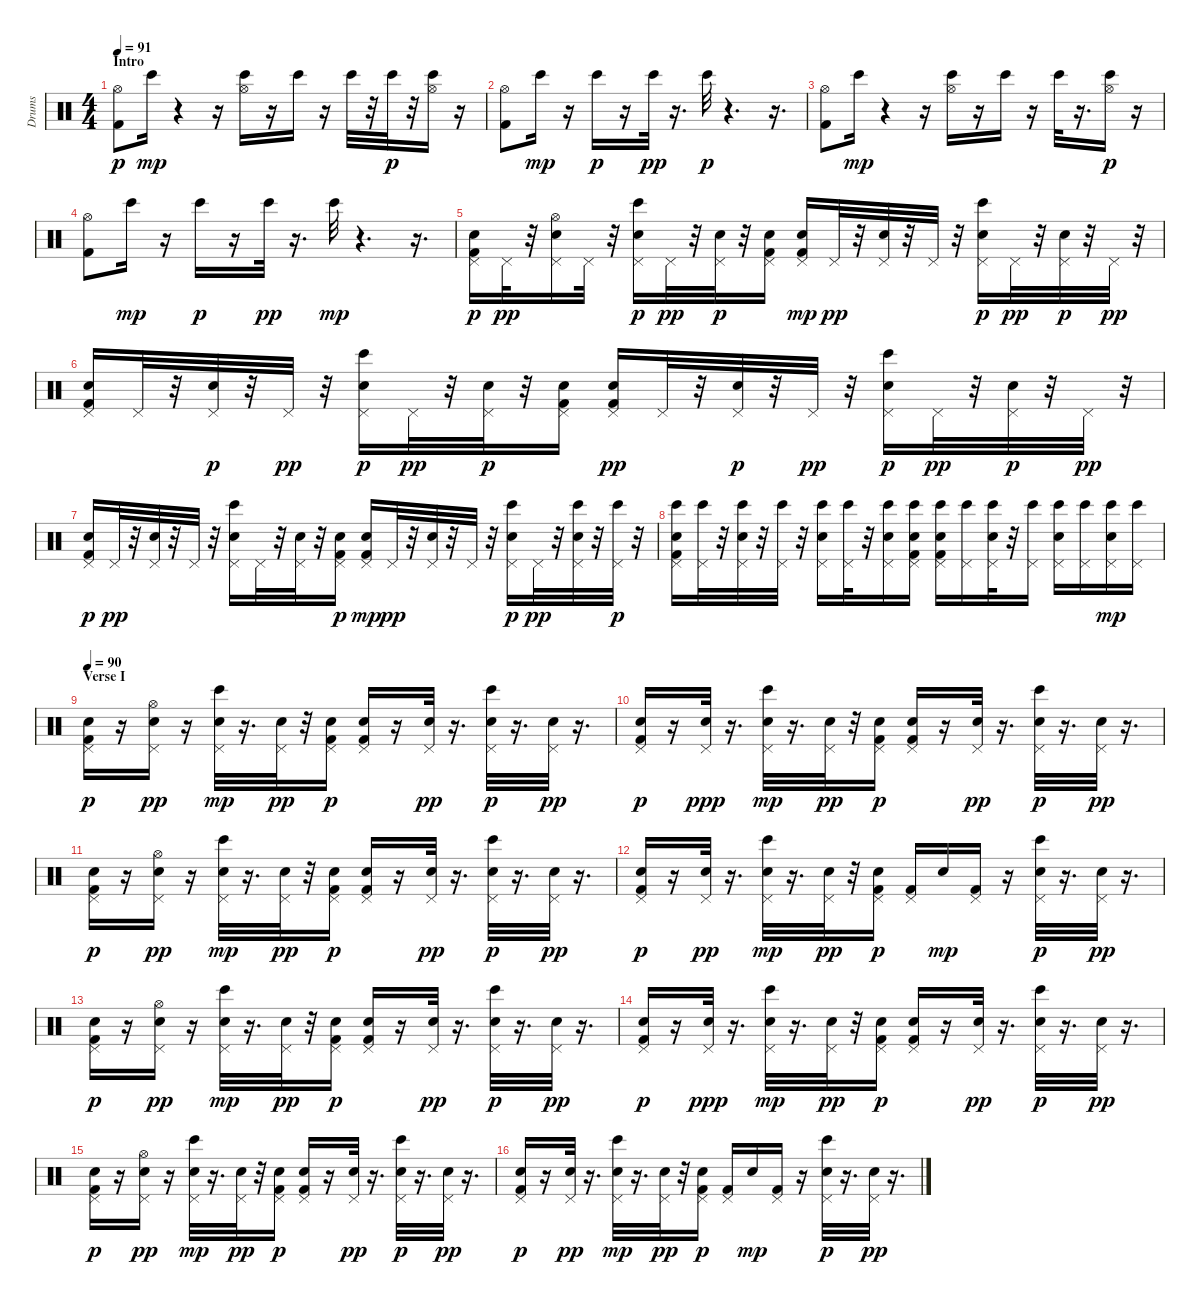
\track ("Drums" "Drums") {instrument percussion}
\staff {score}
\articulation defaults
\ts (4 4)
\section ("" "Intro")
\tempo 91
\clef neutral
\ks c
("Hi-Hat (open)" "Kick (hit) 2").8{dy p} "Bongo High (hit)".16{dy mp} r.4 r.16 ("Hi-Hat (open)" "Bongo High (hit)").16 r.16 "Bongo High (hit)".16 r.16 "Bongo High (hit)".32 r.32 "Bongo High (hit)".32{dy p} r.32 ("Hi-Hat (open)" "Bongo High (hit)").16 r.16 |
("Hi-Hat (open)" "Kick (hit) 2").8 "Bongo High (hit)".16{dy mp} r.16 "Bongo High (hit)".16{dy p} r.16 "Bongo High (hit)".32{dy pp} r.16{d} "Bongo High (hit)".32{dy p} r.4{d} r.16{d} |
("Hi-Hat (open)" "Kick (hit) 2").8 "Bongo High (hit)".16{dy mp} r.4 r.16 ("Hi-Hat (open)" "Bongo High (hit)").16 r.16 "Bongo High (hit)".16 r.16 "Bongo High (hit)".32 r.16{d} ("Hi-Hat (open)" "Bongo High (hit)").16{dy p} r.16 |
("Hi-Hat (open)" "Kick (hit) 2").8 "Bongo High (hit)".16{dy mp} r.16 "Bongo High (hit)".16{dy p} r.16 "Bongo High (hit)".32{dy pp} r.16{d} "Bongo High (hit)".32{dy mp} r.4{d} r.16{d} |
("Pedal Hi-Hat (hit)" "Snare (hit) 2" "Kick (hit) 2").16{dy p volume 12 balance 8} "Pedal Hi-Hat (hit)".32{dy pp} r.32 ("Pedal Hi-Hat (hit)" "Snare (hit) 2" "Hi-Hat (open)").16 "Pedal Hi-Hat (hit)".32 r.32 ("Bongo High (hit)" "Pedal Hi-Hat (hit)" "Snare (hit) 2").16{dy p} "Pedal Hi-Hat (hit)".32{dy pp} r.32 ("Snare (hit) 2" "Pedal Hi-Hat (hit)").32{dy p} r.32 ("Pedal Hi-Hat (hit)" "Snare (hit) 2" "Kick (hit) 2").16 ("Kick (hit) 2" "Pedal Hi-Hat (hit)" "Snare (hit) 2").16{dy mp} "Pedal Hi-Hat (hit)".32{dy pp} r.32 ("Pedal Hi-Hat (hit)" "Snare (hit) 2").32 r.32 "Pedal Hi-Hat (hit)".32 r.32 ("Pedal Hi-Hat (hit)" "Snare (hit) 2" "Bongo High (hit)").16{dy p} "Pedal Hi-Hat (hit)".32{dy pp} r.32 ("Snare (hit) 2" "Pedal Hi-Hat (hit)").32{dy p} r.32 "Pedal Hi-Hat (hit)".32{dy pp} r.32 |
("Snare (hit) 2" "Kick (hit) 2" "Pedal Hi-Hat (hit)").16 "Pedal Hi-Hat (hit)".32 r.32 ("Snare (hit) 2" "Pedal Hi-Hat (hit)").32{dy p} r.32 "Pedal Hi-Hat (hit)".32{dy pp} r.32 ("Snare (hit) 2" "Bongo High (hit)" "Pedal Hi-Hat (hit)").16{dy p} "Pedal Hi-Hat (hit)".32{dy pp} r.32 ("Snare (hit) 2" "Pedal Hi-Hat (hit)").32{dy p} r.32 ("Snare (hit) 2" "Kick (hit) 2" "Pedal Hi-Hat (hit)").16 ("Kick (hit) 2" "Snare (hit) 2" "Pedal Hi-Hat (hit)").16{dy pp} "Pedal Hi-Hat (hit)".32 r.32 ("Snare (hit) 2" "Pedal Hi-Hat (hit)").32{dy p} r.32 "Pedal Hi-Hat (hit)".32{dy pp} r.32 ("Snare (hit) 2" "Pedal Hi-Hat (hit)" "Bongo High (hit)").16{dy p} "Pedal Hi-Hat (hit)".32{dy pp} r.32 ("Snare (hit) 2" "Pedal Hi-Hat (hit)").32{dy p} r.32 "Pedal Hi-Hat (hit)".32{dy pp} r.32 |
("Pedal Hi-Hat (hit)" "Snare (hit) 2" "Kick (hit) 2").16{dy p} "Pedal Hi-Hat (hit)".32{dy pp} r.32 ("Pedal Hi-Hat (hit)" "Snare (hit) 2").32 r.32 "Pedal Hi-Hat (hit)".32 r.32 ("Bongo High (hit)" "Pedal Hi-Hat (hit)" "Snare (hit) 2").16 "Pedal Hi-Hat (hit)".32 r.32 ("Pedal Hi-Hat (hit)" "Snare (hit) 2").32 r.32 ("Pedal Hi-Hat (hit)" "Snare (hit) 2" "Kick (hit) 2").16{dy p} ("Pedal Hi-Hat (hit)" "Kick (hit) 2" "Snare (hit) 2").16{dy mp} "Pedal Hi-Hat (hit)".32{dy pp} r.32 ("Pedal Hi-Hat (hit)" "Snare (hit) 2").32 r.32 "Pedal Hi-Hat (hit)".32 r.32 ("Pedal Hi-Hat (hit)" "Bongo High (hit)" "Snare (hit) 2").16{dy p} "Pedal Hi-Hat (hit)".32{dy pp} r.32 ("Bongo High (hit)" "Pedal Hi-Hat (hit)" "Snare (hit) 2").32 r.32 ("Bongo High (hit)" "Pedal Hi-Hat (hit)").32{dy p} r.32 |
("Snare (hit) 2" "Kick (hit) 2" "Pedal Hi-Hat (hit)" "Bongo High (hit)").16 ("Pedal Hi-Hat (hit)" "Bongo High (hit)").32 r.32 ("Snare (hit) 2" "Pedal Hi-Hat (hit)" "Bongo High (hit)").32 r.32 ("Pedal Hi-Hat (hit)" "Bongo High (hit)").32 r.32 ("Snare (hit) 2" "Pedal Hi-Hat (hit)" "Bongo High (hit)").16 ("Pedal Hi-Hat (hit)" "Bongo High (hit)").32 r.32 ("Snare (hit) 2" "Pedal Hi-Hat (hit)" "Bongo High (hit)").16 ("Snare (hit) 2" "Kick (hit) 2" "Pedal Hi-Hat (hit)" "Bongo High (hit)").16 ("Kick (hit) 2" "Snare (hit) 2" "Pedal Hi-Hat (hit)" "Bongo High (hit)").16 ("Pedal Hi-Hat (hit)" "Bongo High (hit)").16 ("Snare (hit) 2" "Pedal Hi-Hat (hit)" "Bongo High (hit)").32 r.32 ("Pedal Hi-Hat (hit)" "Bongo High (hit)").16 ("Snare (hit) 2" "Pedal Hi-Hat (hit)" "Bongo High (hit)").16 ("Pedal Hi-Hat (hit)" "Bongo High (hit)").16 ("Snare (hit) 2" "Pedal Hi-Hat (hit)" "Bongo High (hit)").16{dy mp} ("Pedal Hi-Hat (hit)" "Bongo High (hit)").16 |
\section ("" "Verse I")
\tempo 90
("Pedal Hi-Hat (hit)" "Snare (hit) 2" "Kick (hit) 2").16{dy p} r.16 ("Pedal Hi-Hat (hit)" "Hi-Hat (open)" "Snare (hit) 2").16{dy pp} r.16 ("Pedal Hi-Hat (hit)" "Bongo High (hit)" "Snare (hit) 2").32{dy mp} r.16{d} ("Pedal Hi-Hat (hit)" "Snare (hit) 2").32{dy pp} r.32 ("Pedal Hi-Hat (hit)" "Snare (hit) 2" "Kick (hit) 2").16{dy p} ("Pedal Hi-Hat (hit)" "Kick (hit) 2" "Snare (hit) 2").16 r.16 ("Pedal Hi-Hat (hit)" "Snare (hit) 2").32{dy pp} r.16{d} ("Pedal Hi-Hat (hit)" "Snare (hit) 2" "Bongo High (hit)").32{dy p} r.16{d} ("Pedal Hi-Hat (hit)" "Snare (hit) 2").32{dy pp} r.16{d} |
("Pedal Hi-Hat (hit)" "Snare (hit) 2" "Kick (hit) 2").16{dy p} r.16 ("Pedal Hi-Hat (hit)" "Snare (hit) 2").32{dy ppp} r.16{d} ("Pedal Hi-Hat (hit)" "Bongo High (hit)" "Snare (hit) 2").32{dy mp} r.16{d} ("Pedal Hi-Hat (hit)" "Snare (hit) 2").32{dy pp} r.32 ("Pedal Hi-Hat (hit)" "Snare (hit) 2" "Kick (hit) 2").16{dy p} ("Pedal Hi-Hat (hit)" "Kick (hit) 2" "Snare (hit) 2").16 r.16 ("Pedal Hi-Hat (hit)" "Snare (hit) 2").32{dy pp} r.16{d} ("Pedal Hi-Hat (hit)" "Snare (hit) 2" "Bongo High (hit)").32{dy p} r.16{d} ("Pedal Hi-Hat (hit)" "Snare (hit) 2").32{dy pp} r.16{d} |
("Pedal Hi-Hat (hit)" "Snare (hit) 2" "Kick (hit) 2").16{dy p} r.16 ("Hi-Hat (open)" "Pedal Hi-Hat (hit)" "Snare (hit) 2").16{dy pp} r.16 ("Pedal Hi-Hat (hit)" "Bongo High (hit)" "Snare (hit) 2").32{dy mp} r.16{d} ("Pedal Hi-Hat (hit)" "Snare (hit) 2").32{dy pp} r.32 ("Pedal Hi-Hat (hit)" "Snare (hit) 2" "Kick (hit) 2").16{dy p} ("Pedal Hi-Hat (hit)" "Kick (hit) 2" "Snare (hit) 2").16 r.16 ("Pedal Hi-Hat (hit)" "Snare (hit) 2").32{dy pp} r.16{d} ("Pedal Hi-Hat (hit)" "Snare (hit) 2" "Bongo High (hit)").32{dy p} r.16{d} ("Pedal Hi-Hat (hit)" "Snare (hit) 2").32{dy pp} r.16{d} |
("Pedal Hi-Hat (hit)" "Snare (hit) 2" "Kick (hit) 2").16{dy p} r.16 ("Pedal Hi-Hat (hit)" "Snare (hit) 2").32{dy pp} r.16{d} ("Pedal Hi-Hat (hit)" "Bongo High (hit)" "Snare (hit) 2").32{dy mp} r.16{d} ("Pedal Hi-Hat (hit)" "Snare (hit) 2").32{dy pp} r.32 ("Pedal Hi-Hat (hit)" "Snare (hit) 2" "Kick (hit) 2").16{dy p} ("Pedal Hi-Hat (hit)" "Kick (hit) 2").16 "Snare (hit) 2".16{dy mp} ("Kick (hit) 2" "Pedal Hi-Hat (hit)").16 r.16 ("Pedal Hi-Hat (hit)" "Snare (hit) 2" "Bongo High (hit)").32{dy p} r.16{d} ("Pedal Hi-Hat (hit)" "Snare (hit) 2").32{dy pp} r.16{d} |
("Pedal Hi-Hat (hit)" "Snare (hit) 2" "Kick (hit) 2").16{dy p} r.16 ("Pedal Hi-Hat (hit)" "Hi-Hat (open)" "Snare (hit) 2").16{dy pp} r.16 ("Pedal Hi-Hat (hit)" "Bongo High (hit)" "Snare (hit) 2").32{dy mp} r.16{d} ("Pedal Hi-Hat (hit)" "Snare (hit) 2").32{dy pp} r.32 ("Pedal Hi-Hat (hit)" "Snare (hit) 2" "Kick (hit) 2").16{dy p} ("Pedal Hi-Hat (hit)" "Kick (hit) 2" "Snare (hit) 2").16 r.16 ("Pedal Hi-Hat (hit)" "Snare (hit) 2").32{dy pp} r.16{d} ("Pedal Hi-Hat (hit)" "Snare (hit) 2" "Bongo High (hit)").32{dy p} r.16{d} ("Pedal Hi-Hat (hit)" "Snare (hit) 2").32{dy pp} r.16{d} |
("Pedal Hi-Hat (hit)" "Snare (hit) 2" "Kick (hit) 2").16{dy p} r.16 ("Pedal Hi-Hat (hit)" "Snare (hit) 2").32{dy ppp} r.16{d} ("Pedal Hi-Hat (hit)" "Bongo High (hit)" "Snare (hit) 2").32{dy mp} r.16{d} ("Pedal Hi-Hat (hit)" "Snare (hit) 2").32{dy pp} r.32 ("Pedal Hi-Hat (hit)" "Snare (hit) 2" "Kick (hit) 2").16{dy p} ("Pedal Hi-Hat (hit)" "Kick (hit) 2" "Snare (hit) 2").16 r.16 ("Pedal Hi-Hat (hit)" "Snare (hit) 2").32{dy pp} r.16{d} ("Pedal Hi-Hat (hit)" "Snare (hit) 2" "Bongo High (hit)").32{dy p} r.16{d} ("Pedal Hi-Hat (hit)" "Snare (hit) 2").32{dy pp} r.16{d} |
("Pedal Hi-Hat (hit)" "Snare (hit) 2" "Kick (hit) 2").16{dy p} r.16 ("Hi-Hat (open)" "Pedal Hi-Hat (hit)" "Snare (hit) 2").16{dy pp} r.16 ("Pedal Hi-Hat (hit)" "Bongo High (hit)" "Snare (hit) 2").32{dy mp} r.16{d} ("Pedal Hi-Hat (hit)" "Snare (hit) 2").32{dy pp} r.32 ("Pedal Hi-Hat (hit)" "Snare (hit) 2" "Kick (hit) 2").16{dy p} ("Pedal Hi-Hat (hit)" "Kick (hit) 2" "Snare (hit) 2").16 r.16 ("Pedal Hi-Hat (hit)" "Snare (hit) 2").32{dy pp} r.16{d} ("Pedal Hi-Hat (hit)" "Snare (hit) 2" "Bongo High (hit)").32{dy p} r.16{d} ("Pedal Hi-Hat (hit)" "Snare (hit) 2").32{dy pp} r.16{d} |
("Pedal Hi-Hat (hit)" "Snare (hit) 2" "Kick (hit) 2").16{dy p} r.16 ("Pedal Hi-Hat (hit)" "Snare (hit) 2").32{dy pp} r.16{d} ("Pedal Hi-Hat (hit)" "Bongo High (hit)" "Snare (hit) 2").32{dy mp} r.16{d} ("Pedal Hi-Hat (hit)" "Snare (hit) 2").32{dy pp} r.32 ("Pedal Hi-Hat (hit)" "Snare (hit) 2" "Kick (hit) 2").16{dy p} ("Pedal Hi-Hat (hit)" "Kick (hit) 2").16 "Snare (hit) 2".16{dy mp} ("Kick (hit) 2" "Pedal Hi-Hat (hit)").16 r.16 ("Pedal Hi-Hat (hit)" "Snare (hit) 2" "Bongo High (hit)").32{dy p} r.16{d} ("Pedal Hi-Hat (hit)" "Snare (hit) 2").32{dy pp} r.16{d}
